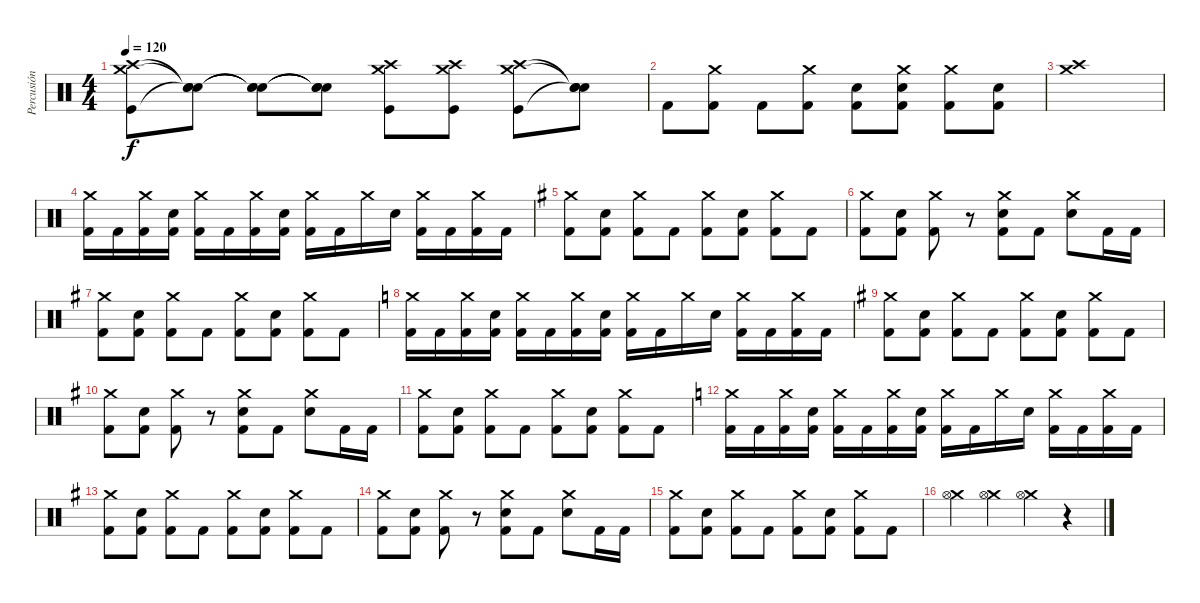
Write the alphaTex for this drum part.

\track ("Percusión" "Percusión") {instrument percussion}
\staff {score}
\articulation defaults
\ts (4 4)
\tempo 120
\clef neutral
\ks c
("Crash high (hit)" "Crash medium (hit)" "Kick (hit)").8{dy f} ("Snare (hit)"{t} "Snare (hit)"{t} "Snare (hit)"{t}).8 ("Snare (hit)"{t} "Snare (hit)"{t} "Snare (hit)"{t}).8 ("Snare (hit)"{t} "Snare (hit)"{t} "Snare (hit)"{t}).8 ("Crash high (hit)" "Crash medium (hit)" "Kick (hit)").8 ("Crash high (hit)" "Crash medium (hit)" "Kick (hit)").8 ("Crash high (hit)" "Crash medium (hit)" "Kick (hit)").8 ("Snare (hit)"{t} "Snare (hit)"{t} "Snare (hit)"{t}).8 |
"Kick (hit) 2".8 ("Crash medium (hit)" "Kick (hit) 2").8 "Kick (hit) 2".8 ("Crash medium (hit)" "Kick (hit) 2").8 ("Electric Snare (hit)" "Kick (hit) 2").8 ("Crash medium (hit)" "Electric Snare (hit)" "Kick (hit) 2").8 ("Crash medium (hit)" "Kick (hit) 2").8 ("Electric Snare (hit)" "Kick (hit) 2").8 |
("Crash high (hit)" "Crash medium (hit)").1 |
("Crash medium (hit)" "Kick (hit) 2").16 "Kick (hit) 2".16 ("Crash medium (hit)" "Kick (hit) 2").16 ("Electric Snare (hit)" "Kick (hit) 2").16 ("Crash medium (hit)" "Kick (hit) 2").16 "Kick (hit) 2".16 ("Crash medium (hit)" "Kick (hit) 2").16 ("Electric Snare (hit)" "Kick (hit) 2").16 ("Crash medium (hit)" "Kick (hit) 2").16 "Kick (hit) 2".16 "Crash medium (hit)".16 "Electric Snare (hit)".16 ("Crash medium (hit)" "Kick (hit) 2").16 "Kick (hit) 2".16 ("Crash medium (hit)" "Kick (hit) 2").16 "Kick (hit) 2".16 |
\ks g
("Crash medium (hit)" "Kick (hit) 2").8 ("Electric Snare (hit)" "Kick (hit) 2").8 ("Crash medium (hit)" "Kick (hit) 2").8 "Kick (hit) 2".8 ("Crash medium (hit)" "Kick (hit) 2").8 ("Electric Snare (hit)" "Kick (hit) 2").8 ("Crash medium (hit)" "Kick (hit) 2").8 "Kick (hit) 2".8 |
("Crash medium (hit)" "Kick (hit) 2").8 ("Electric Snare (hit)" "Kick (hit) 2").8 ("Crash medium (hit)" "Kick (hit) 2").8 r.8 ("Crash medium (hit)" "Electric Snare (hit)" "Kick (hit) 2").8 "Kick (hit) 2".8 ("Crash medium (hit)" "Electric Snare (hit)").8 "Kick (hit) 2".16 "Kick (hit) 2".16 |
("Crash medium (hit)" "Kick (hit) 2").8 ("Electric Snare (hit)" "Kick (hit) 2").8 ("Crash medium (hit)" "Kick (hit) 2").8 "Kick (hit) 2".8 ("Crash medium (hit)" "Kick (hit) 2").8 ("Electric Snare (hit)" "Kick (hit) 2").8 ("Crash medium (hit)" "Kick (hit) 2").8 "Kick (hit) 2".8 |
\ks c
("Crash medium (hit)" "Kick (hit) 2").16 "Kick (hit) 2".16 ("Crash medium (hit)" "Kick (hit) 2").16 ("Electric Snare (hit)" "Kick (hit) 2").16 ("Crash medium (hit)" "Kick (hit) 2").16 "Kick (hit) 2".16 ("Crash medium (hit)" "Kick (hit) 2").16 ("Electric Snare (hit)" "Kick (hit) 2").16 ("Crash medium (hit)" "Kick (hit) 2").16 "Kick (hit) 2".16 "Crash medium (hit)".16 "Electric Snare (hit)".16 ("Crash medium (hit)" "Kick (hit) 2").16 "Kick (hit) 2".16 ("Crash medium (hit)" "Kick (hit) 2").16 "Kick (hit) 2".16 |
\ks g
("Crash medium (hit)" "Kick (hit) 2").8 ("Electric Snare (hit)" "Kick (hit) 2").8 ("Crash medium (hit)" "Kick (hit) 2").8 "Kick (hit) 2".8 ("Crash medium (hit)" "Kick (hit) 2").8 ("Electric Snare (hit)" "Kick (hit) 2").8 ("Crash medium (hit)" "Kick (hit) 2").8 "Kick (hit) 2".8 |
("Crash medium (hit)" "Kick (hit) 2").8 ("Electric Snare (hit)" "Kick (hit) 2").8 ("Crash medium (hit)" "Kick (hit) 2").8 r.8 ("Crash medium (hit)" "Electric Snare (hit)" "Kick (hit) 2").8 "Kick (hit) 2".8 ("Crash medium (hit)" "Electric Snare (hit)").8 "Kick (hit) 2".16 "Kick (hit) 2".16 |
("Crash medium (hit)" "Kick (hit) 2").8 ("Electric Snare (hit)" "Kick (hit) 2").8 ("Crash medium (hit)" "Kick (hit) 2").8 "Kick (hit) 2".8 ("Crash medium (hit)" "Kick (hit) 2").8 ("Electric Snare (hit)" "Kick (hit) 2").8 ("Crash medium (hit)" "Kick (hit) 2").8 "Kick (hit) 2".8 |
\ks c
("Crash medium (hit)" "Kick (hit) 2").16 "Kick (hit) 2".16 ("Crash medium (hit)" "Kick (hit) 2").16 ("Electric Snare (hit)" "Kick (hit) 2").16 ("Crash medium (hit)" "Kick (hit) 2").16 "Kick (hit) 2".16 ("Crash medium (hit)" "Kick (hit) 2").16 ("Electric Snare (hit)" "Kick (hit) 2").16 ("Crash medium (hit)" "Kick (hit) 2").16 "Kick (hit) 2".16 "Crash medium (hit)".16 "Electric Snare (hit)".16 ("Crash medium (hit)" "Kick (hit) 2").16 "Kick (hit) 2".16 ("Crash medium (hit)" "Kick (hit) 2").16 "Kick (hit) 2".16 |
\ks g
("Crash medium (hit)" "Kick (hit) 2").8 ("Electric Snare (hit)" "Kick (hit) 2").8 ("Crash medium (hit)" "Kick (hit) 2").8 "Kick (hit) 2".8 ("Crash medium (hit)" "Kick (hit) 2").8 ("Electric Snare (hit)" "Kick (hit) 2").8 ("Crash medium (hit)" "Kick (hit) 2").8 "Kick (hit) 2".8 |
("Crash medium (hit)" "Kick (hit) 2").8 ("Electric Snare (hit)" "Kick (hit) 2").8 ("Crash medium (hit)" "Kick (hit) 2").8 r.8 ("Crash medium (hit)" "Electric Snare (hit)" "Kick (hit) 2").8 "Kick (hit) 2".8 ("Crash medium (hit)" "Electric Snare (hit)").8 "Kick (hit) 2".16 "Kick (hit) 2".16 |
("Crash medium (hit)" "Kick (hit) 2").8 ("Electric Snare (hit)" "Kick (hit) 2").8 ("Crash medium (hit)" "Kick (hit) 2").8 "Kick (hit) 2".8 ("Crash medium (hit)" "Kick (hit) 2").8 ("Electric Snare (hit)" "Kick (hit) 2").8 ("Crash medium (hit)" "Kick (hit) 2").8 "Kick (hit) 2".8 |
("Crash medium (hit)" "Hi-Hat (open)").4 ("Crash medium (hit)" "Hi-Hat (open)").4 ("Crash medium (hit)" "Hi-Hat (open)").4 r.4
